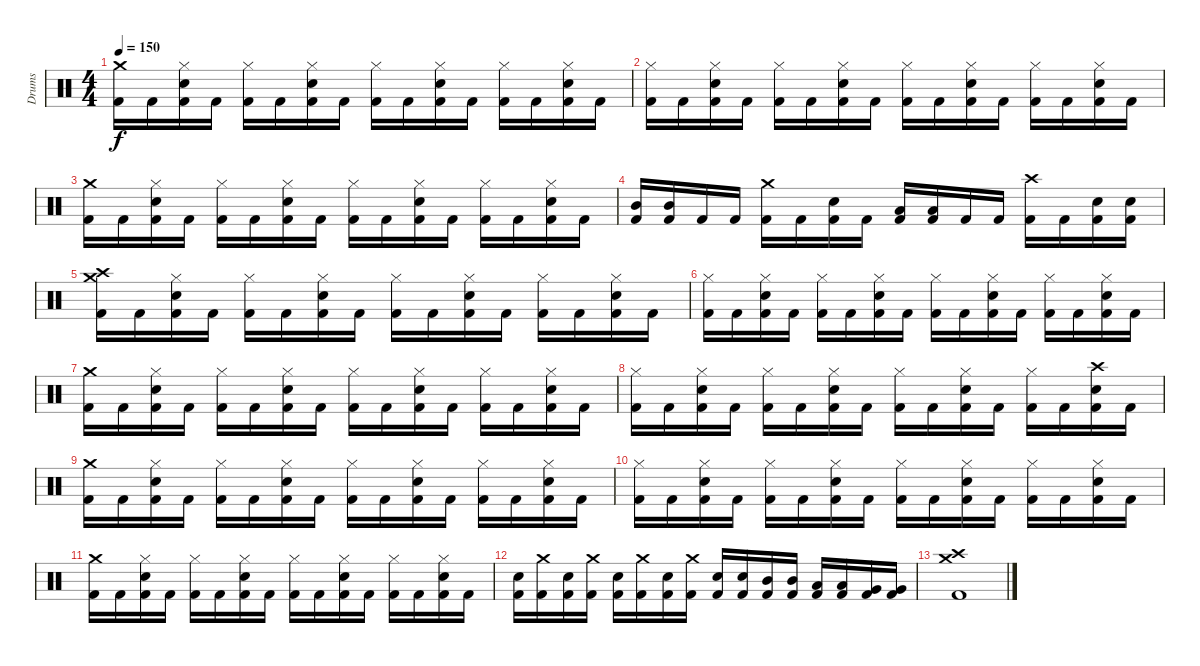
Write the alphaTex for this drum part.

\track ("Drums" "Drums") {instrument percussion}
\staff {score}
\articulation defaults
\ts (4 4)
\tempo 150
\clef neutral
\ks c
("Kick (hit) 2" "Crash medium (hit)").16{dy f} "Kick (hit) 2".16 ("Kick (hit) 2" "Snare (hit) 2" "Hi-Hat (closed)").16 "Kick (hit) 2".16 ("Kick (hit) 2" "Hi-Hat (closed)").16 "Kick (hit) 2".16 ("Kick (hit) 2" "Snare (hit) 2" "Hi-Hat (closed)").16 "Kick (hit) 2".16 ("Kick (hit) 2" "Hi-Hat (closed)").16 "Kick (hit) 2".16 ("Kick (hit) 2" "Snare (hit) 2" "Hi-Hat (closed)").16 "Kick (hit) 2".16 ("Kick (hit) 2" "Hi-Hat (closed)").16 "Kick (hit) 2".16 ("Kick (hit) 2" "Snare (hit) 2" "Hi-Hat (closed)").16 "Kick (hit) 2".16 |
("Kick (hit) 2" "Hi-Hat (closed)").16 "Kick (hit) 2".16 ("Kick (hit) 2" "Snare (hit) 2" "Hi-Hat (closed)").16 "Kick (hit) 2".16 ("Kick (hit) 2" "Hi-Hat (closed)").16 "Kick (hit) 2".16 ("Kick (hit) 2" "Snare (hit) 2" "Hi-Hat (closed)").16 "Kick (hit) 2".16 ("Kick (hit) 2" "Hi-Hat (closed)").16 "Kick (hit) 2".16 ("Kick (hit) 2" "Snare (hit) 2" "Hi-Hat (closed)").16 "Kick (hit) 2".16 ("Kick (hit) 2" "Hi-Hat (closed)").16 "Kick (hit) 2".16 ("Kick (hit) 2" "Snare (hit) 2" "Hi-Hat (closed)").16 "Kick (hit) 2".16 |
("Kick (hit) 2" "Crash medium (hit)").16 "Kick (hit) 2".16 ("Kick (hit) 2" "Snare (hit) 2" "Hi-Hat (closed)").16 "Kick (hit) 2".16 ("Kick (hit) 2" "Hi-Hat (closed)").16 "Kick (hit) 2".16 ("Kick (hit) 2" "Snare (hit) 2" "Hi-Hat (closed)").16 "Kick (hit) 2".16 ("Kick (hit) 2" "Hi-Hat (closed)").16 "Kick (hit) 2".16 ("Kick (hit) 2" "Snare (hit) 2" "Hi-Hat (closed)").16 "Kick (hit) 2".16 ("Kick (hit) 2" "Hi-Hat (closed)").16 "Kick (hit) 2".16 ("Kick (hit) 2" "Snare (hit) 2" "Hi-Hat (closed)").16 "Kick (hit) 2".16 |
("Kick (hit) 2" "Mid Tom (hit)").16 ("Kick (hit) 2" "Mid Tom (hit)").16 "Kick (hit) 2".16 "Kick (hit) 2".16 ("Kick (hit) 2" "Crash medium (hit)").16 "Kick (hit) 2".16 ("Kick (hit) 2" "Snare (hit) 2").16 "Kick (hit) 2".16 ("Kick (hit) 2" "Low Tom (hit)").16 ("Kick (hit) 2" "Low Tom (hit)").16 "Kick (hit) 2".16 "Kick (hit) 2".16 ("Kick (hit) 2" "Crash high (hit)").16 "Kick (hit) 2".16 ("Kick (hit) 2" "Snare (hit) 2").16 ("Kick (hit) 2" "Snare (hit) 2").16 |
("Kick (hit) 2" "Crash medium (hit)" "Crash high (hit)").16 "Kick (hit) 2".16 ("Kick (hit) 2" "Snare (hit) 2" "Hi-Hat (closed)").16 "Kick (hit) 2".16 ("Kick (hit) 2" "Hi-Hat (closed)").16 "Kick (hit) 2".16 ("Kick (hit) 2" "Snare (hit) 2" "Hi-Hat (closed)").16 "Kick (hit) 2".16 ("Kick (hit) 2" "Hi-Hat (closed)").16 "Kick (hit) 2".16 ("Kick (hit) 2" "Snare (hit) 2" "Hi-Hat (closed)").16 "Kick (hit) 2".16 ("Kick (hit) 2" "Hi-Hat (closed)").16 "Kick (hit) 2".16 ("Kick (hit) 2" "Snare (hit) 2" "Hi-Hat (closed)").16 "Kick (hit) 2".16 |
("Kick (hit) 2" "Hi-Hat (closed)").16 "Kick (hit) 2".16 ("Kick (hit) 2" "Snare (hit) 2" "Hi-Hat (closed)").16 "Kick (hit) 2".16 ("Kick (hit) 2" "Hi-Hat (closed)").16 "Kick (hit) 2".16 ("Kick (hit) 2" "Snare (hit) 2" "Hi-Hat (closed)").16 "Kick (hit) 2".16 ("Kick (hit) 2" "Hi-Hat (closed)").16 "Kick (hit) 2".16 ("Kick (hit) 2" "Snare (hit) 2" "Hi-Hat (closed)").16 "Kick (hit) 2".16 ("Kick (hit) 2" "Hi-Hat (closed)").16 "Kick (hit) 2".16 ("Kick (hit) 2" "Snare (hit) 2" "Hi-Hat (closed)").16 "Kick (hit) 2".16 |
("Kick (hit) 2" "Crash medium (hit)").16 "Kick (hit) 2".16 ("Kick (hit) 2" "Snare (hit) 2" "Hi-Hat (closed)").16 "Kick (hit) 2".16 ("Kick (hit) 2" "Hi-Hat (closed)").16 "Kick (hit) 2".16 ("Kick (hit) 2" "Snare (hit) 2" "Hi-Hat (closed)").16 "Kick (hit) 2".16 ("Kick (hit) 2" "Hi-Hat (closed)").16 "Kick (hit) 2".16 ("Kick (hit) 2" "Snare (hit) 2" "Hi-Hat (closed)").16 "Kick (hit) 2".16 ("Kick (hit) 2" "Hi-Hat (closed)").16 "Kick (hit) 2".16 ("Kick (hit) 2" "Snare (hit) 2" "Hi-Hat (closed)").16 "Kick (hit) 2".16 |
("Kick (hit) 2" "Hi-Hat (closed)").16 "Kick (hit) 2".16 ("Kick (hit) 2" "Snare (hit) 2" "Hi-Hat (closed)").16 "Kick (hit) 2".16 ("Kick (hit) 2" "Hi-Hat (closed)").16 "Kick (hit) 2".16 ("Kick (hit) 2" "Snare (hit) 2" "Hi-Hat (closed)").16 "Kick (hit) 2".16 ("Kick (hit) 2" "Hi-Hat (closed)").16 "Kick (hit) 2".16 ("Kick (hit) 2" "Snare (hit) 2" "Hi-Hat (closed)").16 "Kick (hit) 2".16 ("Kick (hit) 2" "Hi-Hat (closed)").16 "Kick (hit) 2".16 ("Kick (hit) 2" "Snare (hit) 2" "Crash high (hit)").16 "Kick (hit) 2".16 |
("Kick (hit) 2" "Crash medium (hit)").16 "Kick (hit) 2".16 ("Kick (hit) 2" "Snare (hit) 2" "Hi-Hat (closed)").16 "Kick (hit) 2".16 ("Kick (hit) 2" "Hi-Hat (closed)").16 "Kick (hit) 2".16 ("Kick (hit) 2" "Snare (hit) 2" "Hi-Hat (closed)").16 "Kick (hit) 2".16 ("Kick (hit) 2" "Hi-Hat (closed)").16 "Kick (hit) 2".16 ("Kick (hit) 2" "Snare (hit) 2" "Hi-Hat (closed)").16 "Kick (hit) 2".16 ("Kick (hit) 2" "Hi-Hat (closed)").16 "Kick (hit) 2".16 ("Kick (hit) 2" "Snare (hit) 2" "Hi-Hat (closed)").16 "Kick (hit) 2".16 |
("Kick (hit) 2" "Hi-Hat (closed)").16 "Kick (hit) 2".16 ("Kick (hit) 2" "Snare (hit) 2" "Hi-Hat (closed)").16 "Kick (hit) 2".16 ("Kick (hit) 2" "Hi-Hat (closed)").16 "Kick (hit) 2".16 ("Kick (hit) 2" "Snare (hit) 2" "Hi-Hat (closed)").16 "Kick (hit) 2".16 ("Kick (hit) 2" "Hi-Hat (closed)").16 "Kick (hit) 2".16 ("Kick (hit) 2" "Snare (hit) 2" "Hi-Hat (closed)").16 "Kick (hit) 2".16 ("Kick (hit) 2" "Hi-Hat (closed)").16 "Kick (hit) 2".16 ("Kick (hit) 2" "Snare (hit) 2" "Hi-Hat (closed)").16 "Kick (hit) 2".16 |
("Kick (hit) 2" "Crash medium (hit)").16 "Kick (hit) 2".16 ("Kick (hit) 2" "Snare (hit) 2" "Hi-Hat (closed)").16 "Kick (hit) 2".16 ("Kick (hit) 2" "Hi-Hat (closed)").16 "Kick (hit) 2".16 ("Kick (hit) 2" "Snare (hit) 2" "Hi-Hat (closed)").16 "Kick (hit) 2".16 ("Kick (hit) 2" "Hi-Hat (closed)").16 "Kick (hit) 2".16 ("Kick (hit) 2" "Snare (hit) 2" "Hi-Hat (closed)").16 "Kick (hit) 2".16 ("Kick (hit) 2" "Hi-Hat (closed)").16 "Kick (hit) 2".16 ("Kick (hit) 2" "Snare (hit) 2" "Hi-Hat (closed)").16 "Kick (hit) 2".16 |
("Kick (hit) 2" "Snare (hit) 2").16 ("Kick (hit) 2" "Crash medium (hit)").16 ("Kick (hit) 2" "Snare (hit) 2").16 ("Kick (hit) 2" "Crash medium (hit)").16 ("Kick (hit) 2" "Snare (hit) 2").16 ("Kick (hit) 2" "Crash medium (hit)").16 ("Kick (hit) 2" "Snare (hit) 2").16 ("Kick (hit) 2" "Crash medium (hit)").16 ("Kick (hit) 2" "Snare (hit) 2").16 ("Kick (hit) 2" "Snare (hit) 2").16 ("Kick (hit) 2" "Mid Tom (hit)").16 ("Kick (hit) 2" "Mid Tom (hit)").16 ("Kick (hit) 2" "Low Tom (hit)").16 ("Kick (hit) 2" "Low Tom (hit)").16 ("Kick (hit) 2" "Very Low Tom (hit)").16 ("Kick (hit) 2" "Very Low Tom (hit)").16 |
("Kick (hit) 2" "Crash high (hit)" "Crash medium (hit)").1
